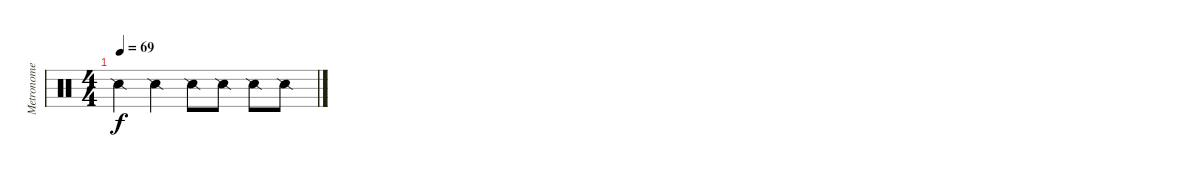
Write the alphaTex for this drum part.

\track ("Metronome" "Metronome") {instrument percussion}
\staff {score}
\articulation defaults
\ts (4 4)
\tempo 69
\clef neutral
\ks c "Snare (side stick) 2".4{dy f} "Snare (side stick) 2".4 "Snare (side stick) 2".8 "Snare (side stick) 2".8 "Snare (side stick) 2".8 "Snare (side stick) 2".8
